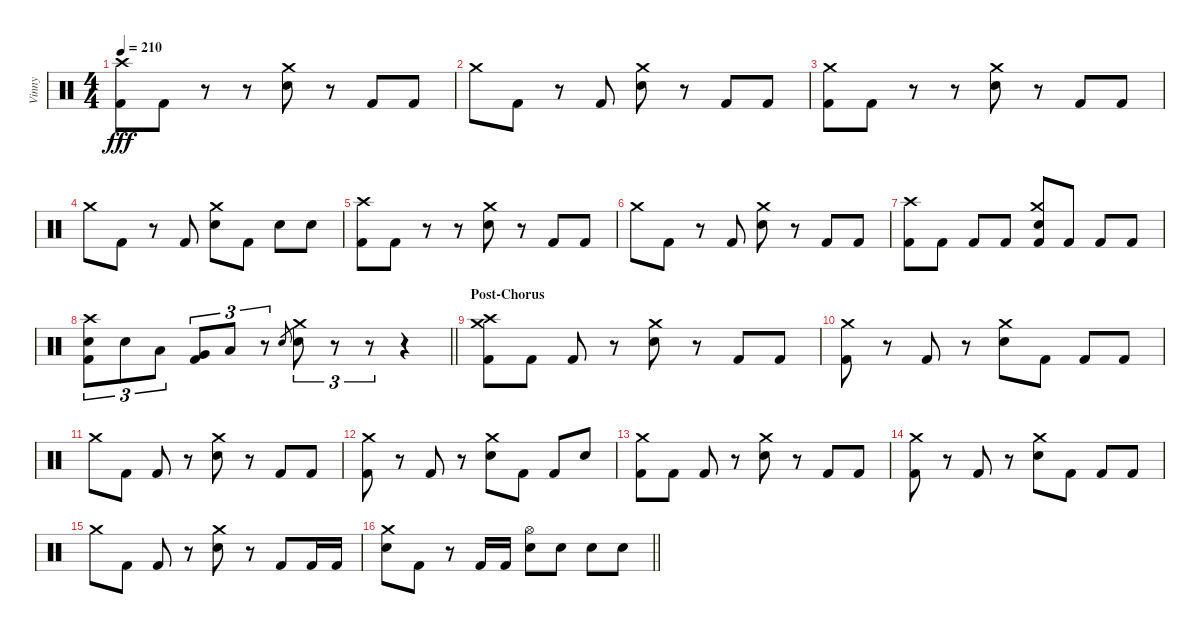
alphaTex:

\track ("Vinny" "Vinny") {instrument percussion}
\staff {score}
\articulation defaults
\ts (4 4)
\tempo 210
\clef neutral
\ks c
("Crash high (hit)" "Kick (hit) 2").8{dy fff} "Kick (hit) 2".8 r.8 r.8 ("Crash medium (hit)" "Electric Snare (hit)").8 r.8 "Kick (hit) 2".8 "Kick (hit) 2".8 |
"Crash medium (hit)".8 "Kick (hit) 2".8 r.8 "Kick (hit) 2".8 ("Crash medium (hit)" "Electric Snare (hit)").8 r.8 "Kick (hit) 2".8 "Kick (hit) 2".8 |
("Crash medium (hit)" "Kick (hit) 2").8 "Kick (hit) 2".8 r.8 r.8 ("Crash medium (hit)" "Electric Snare (hit)").8 r.8 "Kick (hit) 2".8 "Kick (hit) 2".8 |
"Crash medium (hit)".8 "Kick (hit) 2".8 r.8 "Kick (hit) 2".8 ("Crash medium (hit)" "Electric Snare (hit)").8 "Kick (hit) 2".8 "Electric Snare (hit)".8 "Electric Snare (hit)".8 |
("Crash high (hit)" "Kick (hit) 2").8 "Kick (hit) 2".8 r.8 r.8 ("Crash medium (hit)" "Electric Snare (hit)").8 r.8 "Kick (hit) 2".8 "Kick (hit) 2".8 |
"Crash medium (hit)".8 "Kick (hit) 2".8 r.8 "Kick (hit) 2".8 ("Crash medium (hit)" "Electric Snare (hit)").8 r.8 "Kick (hit) 2".8 "Kick (hit) 2".8 |
("Crash high (hit)" "Kick (hit) 2").8 "Kick (hit) 2".8 "Kick (hit) 2".8 "Kick (hit) 2".8 ("Crash medium (hit)" "Electric Snare (hit)" "Kick (hit) 2").8 "Kick (hit) 2".8 "Kick (hit) 2".8 "Kick (hit) 2".8 |
\barLineRight lightlight
("Crash high (hit)" "Electric Snare (hit)" "Kick (hit) 2").8{tu (3 2)} "Snare (hit) 2".8{tu (3 2)} "Low Tom (hit)".8{tu (3 2)} ("Very Low Tom (hit)" "Kick (hit) 2").8{tu (3 2)} "Low Floor Tom (hit)".8{tu (3 2)} r.8{tu (3 2)} "Electric Snare (hit)".8{gr} ("Crash medium (hit)" "Electric Snare (hit)").8{tu (3 2)} r.8{tu (3 2)} r.8{tu (3 2)} r.4 |
\section ("" "Post-Chorus")
("Crash high (hit)" "Crash medium (hit)" "Kick (hit) 2").8 "Kick (hit) 2".8 "Kick (hit) 2".8 r.8 ("Crash medium (hit)" "Electric Snare (hit)").8 r.8 "Kick (hit) 2".8 "Kick (hit) 2".8 |
("Crash medium (hit)" "Kick (hit) 2").8 r.8 "Kick (hit) 2".8 r.8 ("Crash medium (hit)" "Electric Snare (hit)").8 "Kick (hit) 2".8 "Kick (hit) 2".8 "Kick (hit) 2".8 |
"Crash medium (hit)".8 "Kick (hit) 2".8 "Kick (hit) 2".8 r.8 ("Crash medium (hit)" "Electric Snare (hit)").8 r.8 "Kick (hit) 2".8 "Kick (hit) 2".8 |
("Crash medium (hit)" "Kick (hit) 2").8 r.8 "Kick (hit) 2".8 r.8 ("Crash medium (hit)" "Electric Snare (hit)").8 "Kick (hit) 2".8 "Kick (hit) 2".8 "Electric Snare (hit)".8 |
("Crash medium (hit)" "Kick (hit) 2").8 "Kick (hit) 2".8 "Kick (hit) 2".8 r.8 ("Crash medium (hit)" "Electric Snare (hit)").8 r.8 "Kick (hit) 2".8 "Kick (hit) 2".8 |
("Crash medium (hit)" "Kick (hit) 2").8 r.8 "Kick (hit) 2".8 r.8 ("Crash medium (hit)" "Electric Snare (hit)").8 "Kick (hit) 2".8 "Kick (hit) 2".8 "Kick (hit) 2".8 |
"Crash medium (hit)".8 "Kick (hit) 2".8 "Kick (hit) 2".8 r.8 ("Crash medium (hit)" "Electric Snare (hit)").8 r.8 "Kick (hit) 2".8 "Kick (hit) 2".16 "Kick (hit) 2".16 |
\barLineRight lightlight
("Crash medium (hit)" "Electric Snare (hit)").8 "Kick (hit) 2".8 r.8 "Kick (hit) 2".16 "Kick (hit) 2".16 ("Hi-Hat (open)" "Electric Snare (hit)").8 "Electric Snare (hit)".8 "Electric Snare (hit)".8 "Electric Snare (hit)".8
